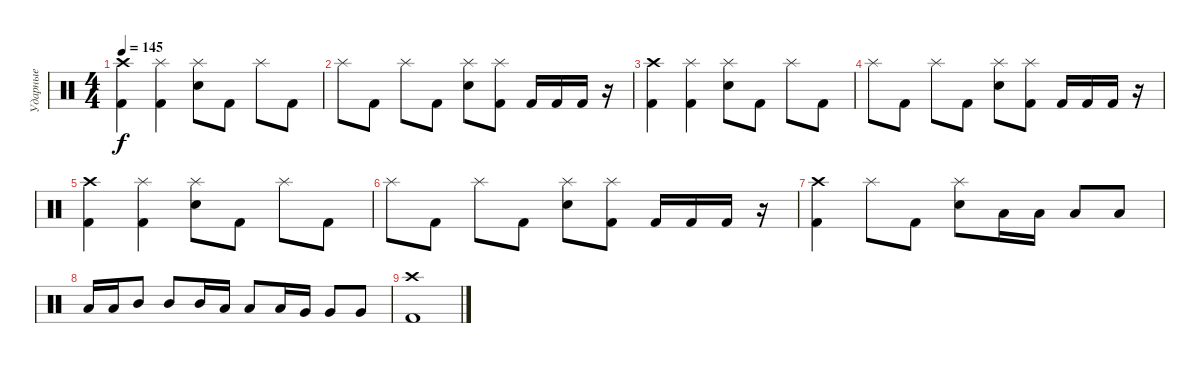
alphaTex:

\track ("Ударные" "Ударные") {instrument percussion}
\staff {score}
\articulation defaults
\ts (4 4)
\tempo 145
\clef neutral
\ks c
("Crash high (hit)" "Kick (hit) 2").4{dy f} ("Splash (hit)" "Kick (hit) 2").4 ("Splash (hit)" "Snare (hit) 2").8 "Kick (hit) 2".8 "Splash (hit)".8 "Kick (hit) 2".8 |
"Splash (hit)".8 "Kick (hit) 2".8 "Splash (hit)".8 "Kick (hit) 2".8 ("Splash (hit)" "Snare (hit) 2").8 ("Splash (hit)" "Kick (hit) 2").8 "Kick (hit) 2".16 "Kick (hit) 2".16 "Kick (hit) 2".16 r.16 |
("Crash high (hit)" "Kick (hit) 2").4 ("Splash (hit)" "Kick (hit) 2").4 ("Splash (hit)" "Snare (hit) 2").8 "Kick (hit) 2".8 "Splash (hit)".8 "Kick (hit) 2".8 |
"Splash (hit)".8 "Kick (hit) 2".8 "Splash (hit)".8 "Kick (hit) 2".8 ("Splash (hit)" "Snare (hit) 2").8 ("Splash (hit)" "Kick (hit) 2").8 "Kick (hit) 2".16 "Kick (hit) 2".16 "Kick (hit) 2".16 r.16 |
("Crash high (hit)" "Kick (hit) 2").4 ("Splash (hit)" "Kick (hit) 2").4 ("Splash (hit)" "Snare (hit) 2").8 "Kick (hit) 2".8 "Splash (hit)".8 "Kick (hit) 2".8 |
"Splash (hit)".8 "Kick (hit) 2".8 "Splash (hit)".8 "Kick (hit) 2".8 ("Splash (hit)" "Snare (hit) 2").8 ("Splash (hit)" "Kick (hit) 2").8 "Kick (hit) 2".16 "Kick (hit) 2".16 "Kick (hit) 2".16 r.16 |
("Crash high (hit)" "Kick (hit) 2").4 "Splash (hit)".8 "Kick (hit) 2".8 ("Splash (hit)" "Snare (hit) 2").8 "Low Tom (hit)".16 "Low Tom (hit)".16 "Low Tom (hit)".8 "Low Tom (hit)".8 |
"Low Tom (hit)".16 "Low Tom (hit)".16 "Mid Tom (hit)".8 "Mid Tom (hit)".8 "Mid Tom (hit)".16 "Low Tom (hit)".16 "Low Tom (hit)".8 "Low Tom (hit)".16 "Very Low Tom (hit)".16 "Very Low Tom (hit)".8 "Very Low Tom (hit)".8 |
("Crash high (hit)" "Kick (hit) 2").1
